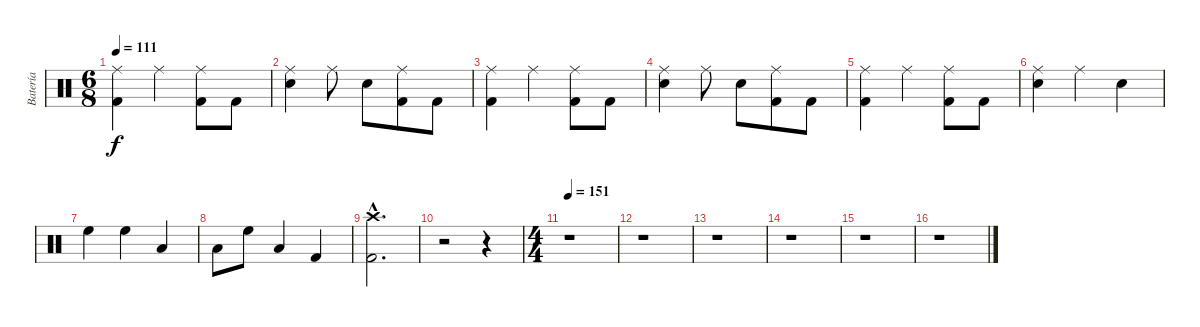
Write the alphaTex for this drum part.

\track ("Batería" "Batería") {instrument percussion}
\staff {score}
\articulation defaults
\ts (6 8)
\tempo 111
\clef neutral
\ks c
("Ride (middle)" "Kick (hit) 2").4{dy f} "Ride (middle)".4 ("Ride (middle)" "Kick (hit) 2").8 "Kick (hit) 2".8 |
("Ride (middle)" "Snare (hit) 2").4 "Ride (middle)".8 "Snare (hit) 2".8 ("Ride (middle)" "Kick (hit) 2").8 "Kick (hit) 2".8 |
("Ride (middle)" "Kick (hit) 2").4 "Ride (middle)".4 ("Ride (middle)" "Kick (hit) 2").8 "Kick (hit) 2".8 |
("Ride (middle)" "Snare (hit) 2").4 "Ride (middle)".8 "Snare (hit) 2".8 ("Ride (middle)" "Kick (hit) 2").8 "Kick (hit) 2".8 |
("Ride (middle)" "Kick (hit) 2").4 "Ride (middle)".4 ("Ride (middle)" "Kick (hit) 2").8 "Kick (hit) 2".8 |
("Ride (middle)" "Snare (hit) 2").4 "Ride (middle)".4 "Snare (hit) 2".4 |
"High Floor Tom (hit)".4 "High Floor Tom (hit)".4 "Low Tom (hit)".4 |
"Low Tom (hit)".8 "High Floor Tom (hit)".8 "Low Tom (hit)".4 "Kick (hit) 2".4 |
("Crash high (hit)"{hac} "Kick (hit) 2"{hac}).2{d} |
r.2 r.4 |
\ts (4 4)
\tempo 151
r.1 |
r.1 |
r.1 |
r.1 |
r.1 |
r.1
